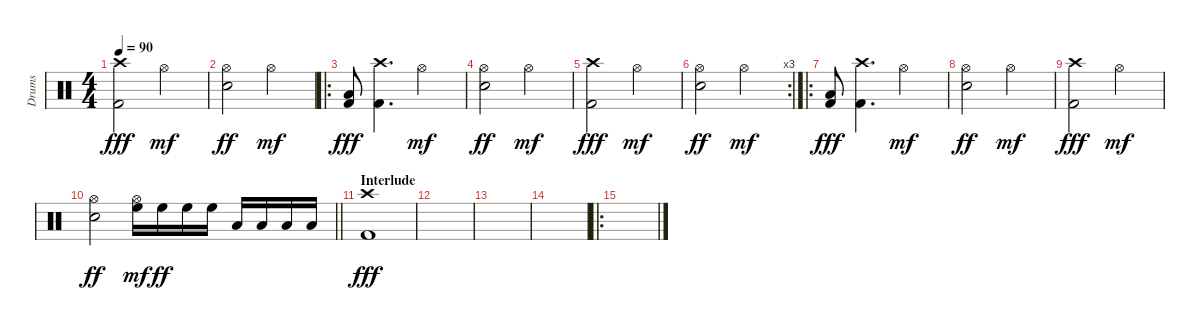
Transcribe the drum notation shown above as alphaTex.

\track ("Drums" "Drums") {instrument percussion}
\staff {score}
\articulation defaults
\ts (4 4)
\tempo 90
\clef neutral
\ks c
("Crash high (hit)" "Kick (hit) 2").2{dy fff} "Hi-Hat (open)".2{dy mf} |
("Hi-Hat (open)" "Electric Snare (hit)").2{dy ff} "Hi-Hat (open)".2{dy mf} |
\ro
("Low Floor Tom (hit)" "Kick (hit) 2").8{dy fff} ("Crash high (hit)" "Kick (hit) 2").4{d} "Hi-Hat (open)".2{dy mf} |
("Hi-Hat (open)" "Electric Snare (hit)").2{dy ff} "Hi-Hat (open)".2{dy mf} |
("Crash high (hit)" "Kick (hit) 2").2{dy fff} "Hi-Hat (open)".2{dy mf} |
\rc 3
("Hi-Hat (open)" "Electric Snare (hit)").2{dy ff} "Hi-Hat (open)".2{dy mf} |
\ro
("Low Floor Tom (hit)" "Kick (hit) 2").8{dy fff} ("Crash high (hit)" "Kick (hit) 2").4{d} "Hi-Hat (open)".2{dy mf} |
("Hi-Hat (open)" "Electric Snare (hit)").2{dy ff} "Hi-Hat (open)".2{dy mf} |
("Crash high (hit)" "Kick (hit) 2").2{dy fff} "Hi-Hat (open)".2{dy mf} |
\barLineRight lightlight
("Hi-Hat (open)" "Electric Snare (hit)").2{dy ff} ("High Floor Tom (hit)" "Hi-Hat (open)").16{dy mf} "High Floor Tom (hit)".16{dy ff} "High Floor Tom (hit)".16 "High Floor Tom (hit)".16 "Low Tom (hit)".16 "Low Tom (hit)".16 "Low Tom (hit)".16 "Low Tom (hit)".16 |
\section ("" "Interlude")
("Crash high (hit)" "Kick (hit) 2").1{dy fff} |
|
|
|
\ro
